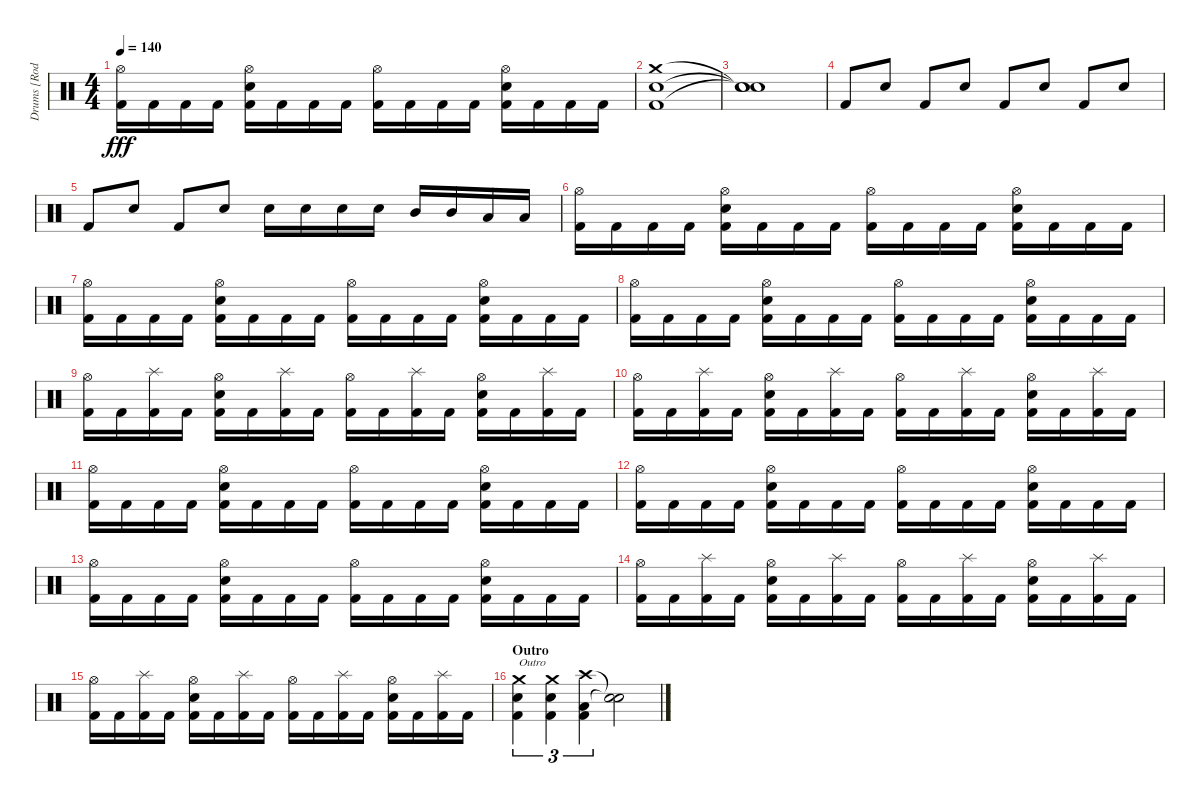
\track ("Drums [Rodney Holder]" "Drums [Rod") {instrument percussion}
\staff {score}
\articulation defaults
\ts (4 4)
\tempo 140
\clef neutral
\ks c
("Hi-Hat (open)" "Kick (hit) 2").16{dy fff} "Kick (hit) 2".16 "Kick (hit) 2".16 "Kick (hit) 2".16 ("Hi-Hat (open)" "Electric Snare (hit)" "Kick (hit) 2").16 "Kick (hit) 2".16 "Kick (hit) 2".16 "Kick (hit) 2".16 ("Hi-Hat (open)" "Kick (hit) 2").16 "Kick (hit) 2".16 "Kick (hit) 2".16 "Kick (hit) 2".16 ("Hi-Hat (open)" "Electric Snare (hit)" "Kick (hit) 2").16 "Kick (hit) 2".16 "Kick (hit) 2".16 "Kick (hit) 2".16 |
("Crash medium (hit)" "Electric Snare (hit)" "Kick (hit) 2").1 |
("Snare (hit)"{t} "Snare (hit)"{t} "Snare (hit)"{t}).1 |
"Kick (hit) 2".8 "Electric Snare (hit)".8 "Kick (hit) 2".8 "Electric Snare (hit)".8 "Kick (hit) 2".8 "Electric Snare (hit)".8 "Kick (hit) 2".8 "Electric Snare (hit)".8 |
"Kick (hit) 2".8 "Electric Snare (hit)".8 "Kick (hit) 2".8 "Electric Snare (hit)".8 "Electric Snare (hit)".16 "Electric Snare (hit)".16 "Electric Snare (hit)".16 "Electric Snare (hit)".16 "Mid Tom (hit)".16 "Mid Tom (hit)".16 "Low Tom (hit)".16 "Low Tom (hit)".16 |
("Hi-Hat (open)" "Kick (hit) 2").16 "Kick (hit) 2".16 "Kick (hit) 2".16 "Kick (hit) 2".16 ("Hi-Hat (open)" "Electric Snare (hit)" "Kick (hit) 2").16 "Kick (hit) 2".16 "Kick (hit) 2".16 "Kick (hit) 2".16 ("Hi-Hat (open)" "Kick (hit) 2").16 "Kick (hit) 2".16 "Kick (hit) 2".16 "Kick (hit) 2".16 ("Hi-Hat (open)" "Electric Snare (hit)" "Kick (hit) 2").16 "Kick (hit) 2".16 "Kick (hit) 2".16 "Kick (hit) 2".16 |
("Hi-Hat (open)" "Kick (hit) 2").16 "Kick (hit) 2".16 "Kick (hit) 2".16 "Kick (hit) 2".16 ("Hi-Hat (open)" "Electric Snare (hit)" "Kick (hit) 2").16 "Kick (hit) 2".16 "Kick (hit) 2".16 "Kick (hit) 2".16 ("Hi-Hat (open)" "Kick (hit) 2").16 "Kick (hit) 2".16 "Kick (hit) 2".16 "Kick (hit) 2".16 ("Hi-Hat (open)" "Electric Snare (hit)" "Kick (hit) 2").16 "Kick (hit) 2".16 "Kick (hit) 2".16 "Kick (hit) 2".16 |
("Hi-Hat (open)" "Kick (hit) 2").16 "Kick (hit) 2".16 "Kick (hit) 2".16 "Kick (hit) 2".16 ("Hi-Hat (open)" "Electric Snare (hit)" "Kick (hit) 2").16 "Kick (hit) 2".16 "Kick (hit) 2".16 "Kick (hit) 2".16 ("Hi-Hat (open)" "Kick (hit) 2").16 "Kick (hit) 2".16 "Kick (hit) 2".16 "Kick (hit) 2".16 ("Hi-Hat (open)" "Electric Snare (hit)" "Kick (hit) 2").16 "Kick (hit) 2".16 "Kick (hit) 2".16 "Kick (hit) 2".16 |
("Hi-Hat (open)" "Kick (hit) 2").16 "Kick (hit) 2".16 ("Splash (hit)" "Kick (hit) 2").16 "Kick (hit) 2".16 ("Hi-Hat (open)" "Electric Snare (hit)" "Kick (hit) 2").16 "Kick (hit) 2".16 ("Splash (hit)" "Kick (hit) 2").16 "Kick (hit) 2".16 ("Hi-Hat (open)" "Kick (hit) 2").16 "Kick (hit) 2".16 ("Splash (hit)" "Kick (hit) 2").16 "Kick (hit) 2".16 ("Hi-Hat (open)" "Electric Snare (hit)" "Kick (hit) 2").16 "Kick (hit) 2".16 ("Splash (hit)" "Kick (hit) 2").16 "Kick (hit) 2".16 |
("Hi-Hat (open)" "Kick (hit) 2").16 "Kick (hit) 2".16 ("Splash (hit)" "Kick (hit) 2").16 "Kick (hit) 2".16 ("Hi-Hat (open)" "Electric Snare (hit)" "Kick (hit) 2").16 "Kick (hit) 2".16 ("Splash (hit)" "Kick (hit) 2").16 "Kick (hit) 2".16 ("Hi-Hat (open)" "Kick (hit) 2").16 "Kick (hit) 2".16 ("Splash (hit)" "Kick (hit) 2").16 "Kick (hit) 2".16 ("Hi-Hat (open)" "Electric Snare (hit)" "Kick (hit) 2").16 "Kick (hit) 2".16 ("Splash (hit)" "Kick (hit) 2").16 "Kick (hit) 2".16 |
("Hi-Hat (open)" "Kick (hit) 2").16 "Kick (hit) 2".16 "Kick (hit) 2".16 "Kick (hit) 2".16 ("Hi-Hat (open)" "Electric Snare (hit)" "Kick (hit) 2").16 "Kick (hit) 2".16 "Kick (hit) 2".16 "Kick (hit) 2".16 ("Hi-Hat (open)" "Kick (hit) 2").16 "Kick (hit) 2".16 "Kick (hit) 2".16 "Kick (hit) 2".16 ("Hi-Hat (open)" "Electric Snare (hit)" "Kick (hit) 2").16 "Kick (hit) 2".16 "Kick (hit) 2".16 "Kick (hit) 2".16 |
("Hi-Hat (open)" "Kick (hit) 2").16 "Kick (hit) 2".16 "Kick (hit) 2".16 "Kick (hit) 2".16 ("Hi-Hat (open)" "Electric Snare (hit)" "Kick (hit) 2").16 "Kick (hit) 2".16 "Kick (hit) 2".16 "Kick (hit) 2".16 ("Hi-Hat (open)" "Kick (hit) 2").16 "Kick (hit) 2".16 "Kick (hit) 2".16 "Kick (hit) 2".16 ("Hi-Hat (open)" "Electric Snare (hit)" "Kick (hit) 2").16 "Kick (hit) 2".16 "Kick (hit) 2".16 "Kick (hit) 2".16 |
("Hi-Hat (open)" "Kick (hit) 2").16 "Kick (hit) 2".16 "Kick (hit) 2".16 "Kick (hit) 2".16 ("Hi-Hat (open)" "Electric Snare (hit)" "Kick (hit) 2").16 "Kick (hit) 2".16 "Kick (hit) 2".16 "Kick (hit) 2".16 ("Hi-Hat (open)" "Kick (hit) 2").16 "Kick (hit) 2".16 "Kick (hit) 2".16 "Kick (hit) 2".16 ("Hi-Hat (open)" "Electric Snare (hit)" "Kick (hit) 2").16 "Kick (hit) 2".16 "Kick (hit) 2".16 "Kick (hit) 2".16 |
("Hi-Hat (open)" "Kick (hit) 2").16 "Kick (hit) 2".16 ("Splash (hit)" "Kick (hit) 2").16 "Kick (hit) 2".16 ("Hi-Hat (open)" "Electric Snare (hit)" "Kick (hit) 2").16 "Kick (hit) 2".16 ("Splash (hit)" "Kick (hit) 2").16 "Kick (hit) 2".16 ("Hi-Hat (open)" "Kick (hit) 2").16 "Kick (hit) 2".16 ("Splash (hit)" "Kick (hit) 2").16 "Kick (hit) 2".16 ("Hi-Hat (open)" "Electric Snare (hit)" "Kick (hit) 2").16 "Kick (hit) 2".16 ("Splash (hit)" "Kick (hit) 2").16 "Kick (hit) 2".16 |
("Hi-Hat (open)" "Kick (hit) 2").16 "Kick (hit) 2".16 ("Splash (hit)" "Kick (hit) 2").16 "Kick (hit) 2".16 ("Hi-Hat (open)" "Electric Snare (hit)" "Kick (hit) 2").16 "Kick (hit) 2".16 ("Splash (hit)" "Kick (hit) 2").16 "Kick (hit) 2".16 ("Hi-Hat (open)" "Kick (hit) 2").16 "Kick (hit) 2".16 ("Splash (hit)" "Kick (hit) 2").16 "Kick (hit) 2".16 ("Hi-Hat (open)" "Electric Snare (hit)" "Kick (hit) 2").16 "Kick (hit) 2".16 ("Splash (hit)" "Kick (hit) 2").16 "Kick (hit) 2".16 |
\section ("" "Outro")
("Crash medium (hit)" "Electric Snare (hit)" "Kick (hit) 2").4{tu (3 2) txt "Outro"} ("Crash medium (hit)" "Electric Snare (hit)" "Kick (hit) 2").4{tu (3 2)} ("Crash high (hit)" "Low Tom (hit)" "Kick (hit) 2").4{tu (3 2)} ("Snare (hit)"{t} "Snare (hit)"{t}).2
